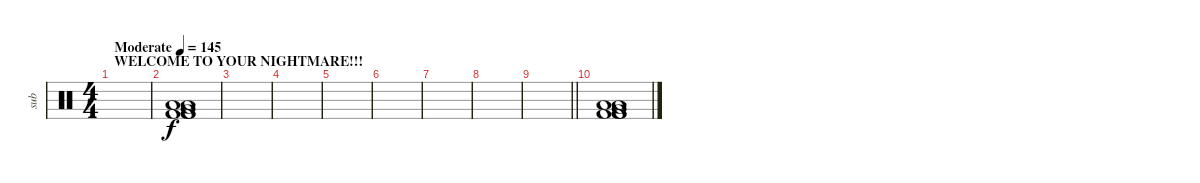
\track ("sub" "sub") {instrument percussion}
\staff {score}
\articulation defaults
\ts (4 4)
\section ("" "WELCOME TO YOUR NIGHTMARE!!!")
\tempo (145 "Moderate")
\clef neutral
\ks c
|
("Low Floor Tom (hit)" "Low Floor Tom (hit)" "Very Low Tom (hit)" "Kick (hit) 2" "Kick (hit) 2" "Kick (hit) 2").1 |
|
|
|
|
|
|
\barLineRight lightlight
|
\section ("" "")
("Low Floor Tom (hit)" "Low Floor Tom (hit)" "Very Low Tom (hit)" "Kick (hit) 2" "Kick (hit) 2" "Kick (hit) 2").1
